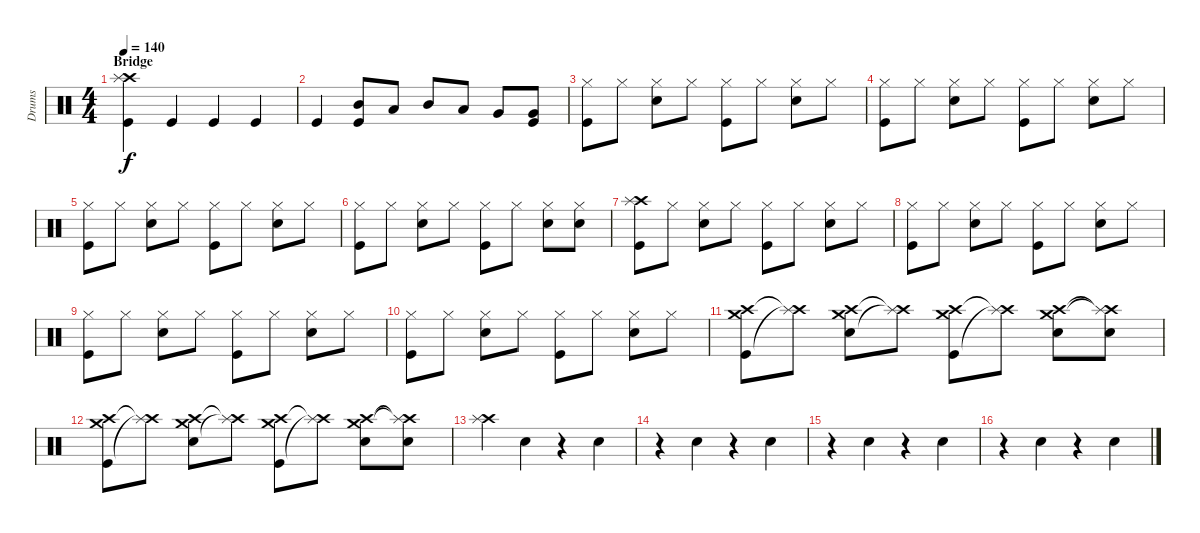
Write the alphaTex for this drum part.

\track ("Drums" "Drums") {instrument percussion}
\staff {score}
\articulation defaults
\ts (4 4)
\section ("" "Bridge")
\tempo 140
\clef neutral
\ks c
("Kick (hit)" "Crash high (hit)" "Splash (hit)").4{dy f} "Kick (hit)".4 "Kick (hit)".4 "Kick (hit)".4 |
"Kick (hit)".4 ("Kick (hit)" "Mid Tom (hit)").8 "Low Tom (hit)".8 "Mid Tom (hit)".8 "Low Tom (hit)".8 "Very Low Tom (hit)".8 ("Kick (hit)" "Very Low Tom (hit)").8 |
("Kick (hit)" "Hi-Hat (closed)").8 "Hi-Hat (closed)".8 ("Electric Snare (hit)" "Hi-Hat (closed)").8 "Hi-Hat (closed)".8 ("Kick (hit)" "Hi-Hat (closed)").8 "Hi-Hat (closed)".8 ("Electric Snare (hit)" "Hi-Hat (closed)").8 "Hi-Hat (closed)".8 |
("Kick (hit)" "Hi-Hat (closed)").8 "Hi-Hat (closed)".8 ("Electric Snare (hit)" "Hi-Hat (closed)").8 "Hi-Hat (closed)".8 ("Kick (hit)" "Hi-Hat (closed)").8 "Hi-Hat (closed)".8 ("Electric Snare (hit)" "Hi-Hat (closed)").8 "Hi-Hat (closed)".8 |
("Kick (hit)" "Hi-Hat (closed)").8 "Hi-Hat (closed)".8 ("Electric Snare (hit)" "Hi-Hat (closed)").8 "Hi-Hat (closed)".8 ("Kick (hit)" "Hi-Hat (closed)").8 "Hi-Hat (closed)".8 ("Electric Snare (hit)" "Hi-Hat (closed)").8 "Hi-Hat (closed)".8 |
("Kick (hit)" "Hi-Hat (closed)").8 "Hi-Hat (closed)".8 ("Electric Snare (hit)" "Hi-Hat (closed)").8 "Hi-Hat (closed)".8 ("Kick (hit)" "Hi-Hat (closed)").8 "Hi-Hat (closed)".8 ("Electric Snare (hit)" "Hi-Hat (closed)").8 ("Electric Snare (hit)" "Hi-Hat (closed)").8 |
("Kick (hit)" "Crash high (hit)" "Splash (hit)").8 "Hi-Hat (closed)".8 ("Electric Snare (hit)" "Hi-Hat (closed)").8 "Hi-Hat (closed)".8 ("Kick (hit)" "Hi-Hat (closed)").8 "Hi-Hat (closed)".8 ("Electric Snare (hit)" "Hi-Hat (closed)").8 "Hi-Hat (closed)".8 |
("Kick (hit)" "Hi-Hat (closed)").8 "Hi-Hat (closed)".8 ("Electric Snare (hit)" "Hi-Hat (closed)").8 "Hi-Hat (closed)".8 ("Kick (hit)" "Hi-Hat (closed)").8 "Hi-Hat (closed)".8 ("Electric Snare (hit)" "Hi-Hat (closed)").8 "Hi-Hat (closed)".8 |
("Kick (hit)" "Hi-Hat (closed)").8 "Hi-Hat (closed)".8 ("Electric Snare (hit)" "Hi-Hat (closed)").8 "Hi-Hat (closed)".8 ("Kick (hit)" "Hi-Hat (closed)").8 "Hi-Hat (closed)".8 ("Electric Snare (hit)" "Hi-Hat (closed)").8 "Hi-Hat (closed)".8 |
("Kick (hit)" "Hi-Hat (closed)").8 "Hi-Hat (closed)".8 ("Electric Snare (hit)" "Hi-Hat (closed)").8 "Hi-Hat (closed)".8 ("Kick (hit)" "Hi-Hat (closed)").8 "Hi-Hat (closed)".8 ("Electric Snare (hit)" "Hi-Hat (closed)").8 "Hi-Hat (closed)".8 |
("Kick (hit)" "Crash high (hit)" "Crash medium (hit)").8 ("Crash high (hit)"{t} "Splash (hit)"{t}).8 ("Electric Snare (hit)" "Crash high (hit)" "Crash medium (hit)").8 ("Crash high (hit)"{t} "Splash (hit)"{t}).8 ("Kick (hit)" "Crash high (hit)" "Crash medium (hit)").8 ("Crash high (hit)"{t} "Splash (hit)"{t}).8 ("Electric Snare (hit)" "Crash high (hit)" "Crash medium (hit)").8 ("Electric Snare (hit)" "Crash high (hit)"{t} "Splash (hit)"{t}).8 |
("Kick (hit)" "Crash high (hit)" "Crash medium (hit)").8 ("Crash high (hit)"{t} "Splash (hit)"{t}).8 ("Electric Snare (hit)" "Crash high (hit)" "Crash medium (hit)").8 ("Crash high (hit)"{t} "Splash (hit)"{t}).8 ("Kick (hit)" "Crash high (hit)" "Crash medium (hit)").8 ("Crash high (hit)"{t} "Splash (hit)"{t}).8 ("Electric Snare (hit)" "Crash high (hit)" "Crash medium (hit)").8 ("Electric Snare (hit)" "Crash high (hit)"{t} "Splash (hit)"{t}).8 |
("Crash high (hit)" "Splash (hit)").4 "Snare (hit) 2".4 r.4 "Snare (hit) 2".4 |
r.4 "Snare (hit) 2".4 r.4 "Snare (hit) 2".4 |
r.4 "Snare (hit) 2".4 r.4 "Snare (hit) 2".4 |
r.4 "Snare (hit) 2".4 r.4 "Snare (hit) 2".4
